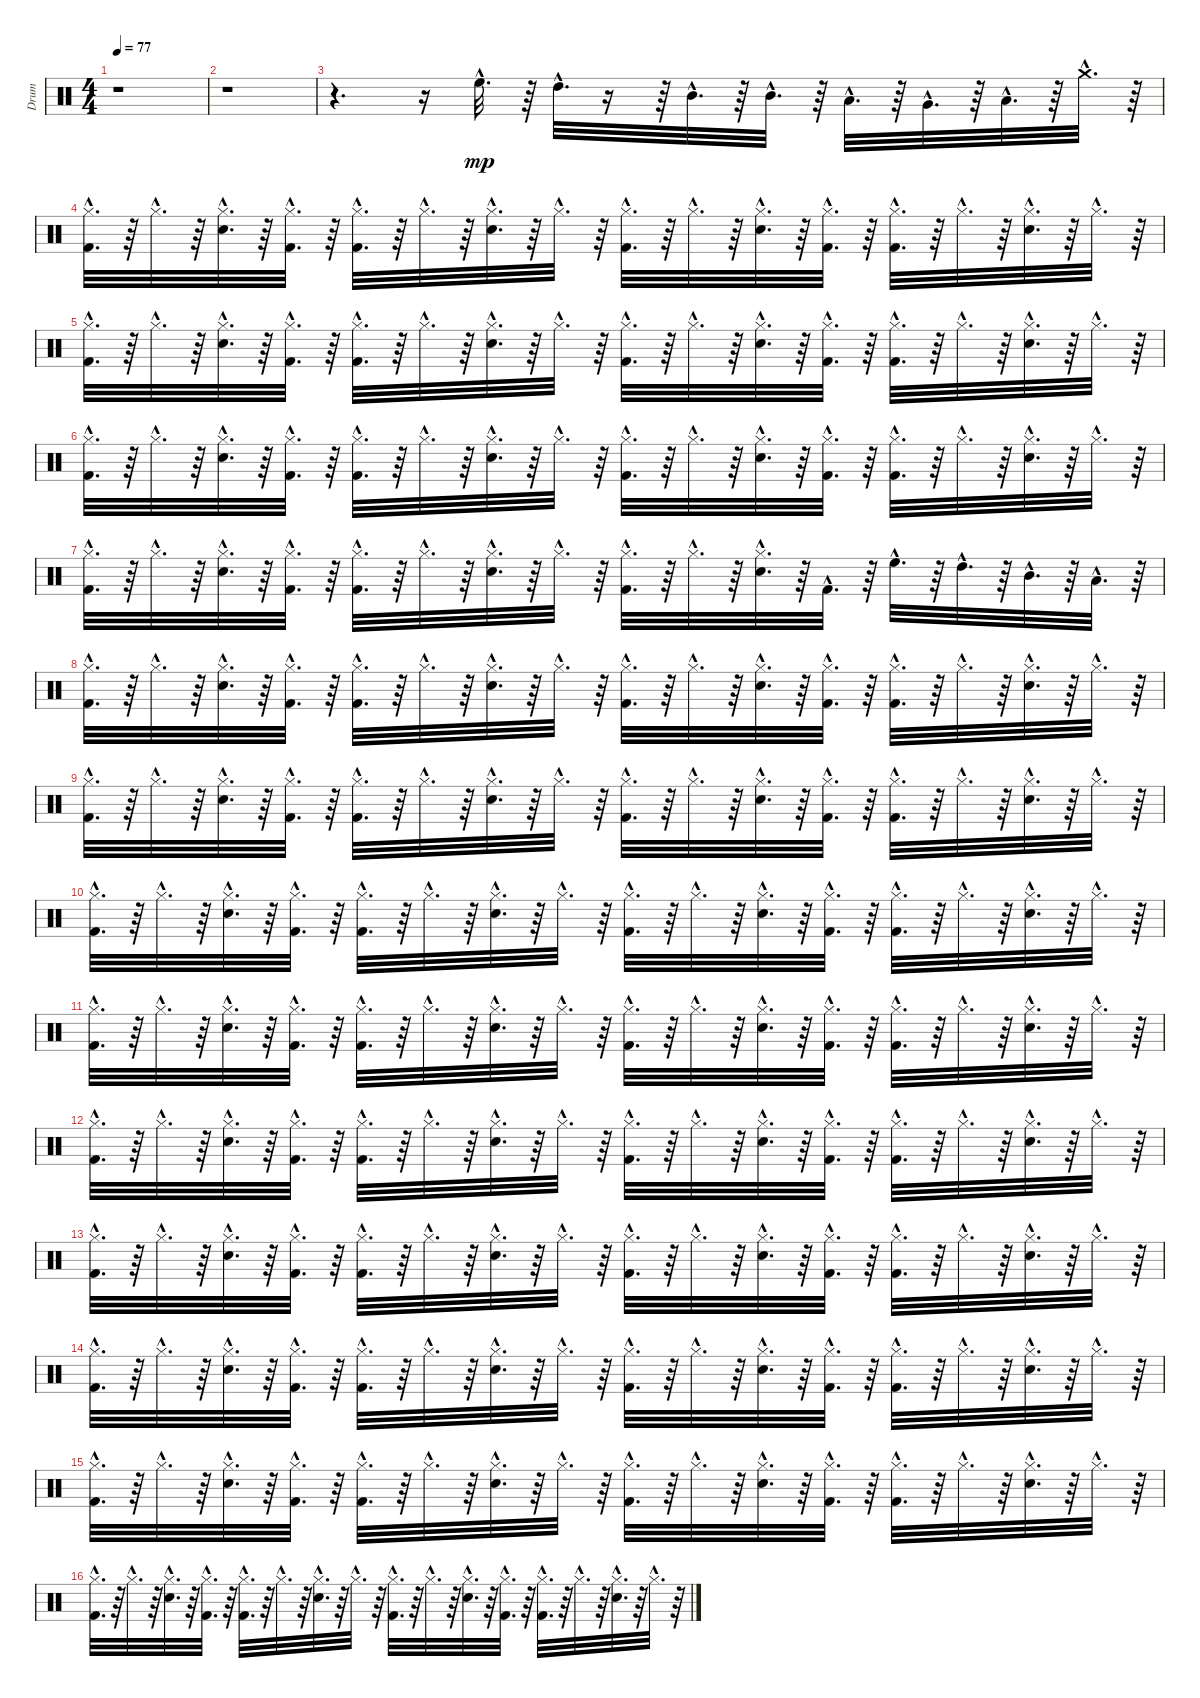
\track ("Drum" "Drum") {instrument percussion}
\staff {score}
\articulation defaults
\ts (4 4)
\tempo 77
\clef neutral
\ks c
r.1{dy mp} |
r.1 |
r.4{d} r.16 "High Floor Tom (hit)"{hac}.32{d} r.64 "High Tom (hit)"{hac}.32{d} r.16 r.64 "Mid Tom (hit)"{hac}.32{d} r.64 "Mid Tom (hit)"{hac}.32{d} r.64 "Low Tom (hit)"{hac}.32{d} r.64 "Very Low Tom (hit)"{hac}.32{d} r.64 "Low Floor Tom (hit)"{hac}.32{d} r.64 "Crash medium (hit)"{hac}.32{d} r.64 |
("Hi-Hat (closed)"{hac} "Kick (hit) 2"{hac}).32{d} r.64 "Hi-Hat (closed)"{hac}.32{d} r.64 ("Snare (hit) 2"{hac} "Hi-Hat (closed)"{hac}).32{d} r.64 ("Hi-Hat (closed)"{hac} "Kick (hit) 2"{hac}).32{d} r.64 ("Kick (hit) 2"{hac} "Hi-Hat (closed)"{hac}).32{d} r.64 "Hi-Hat (closed)"{hac}.32{d} r.64 ("Snare (hit) 2"{hac} "Hi-Hat (closed)"{hac}).32{d} r.64 "Hi-Hat (closed)"{hac}.32{d} r.64 ("Hi-Hat (closed)"{hac} "Kick (hit) 2"{hac}).32{d} r.64 "Hi-Hat (closed)"{hac}.32{d} r.64 ("Snare (hit) 2"{hac} "Hi-Hat (closed)"{hac}).32{d} r.64 ("Kick (hit) 2"{hac} "Hi-Hat (closed)"{hac}).32{d} r.64 ("Kick (hit) 2"{hac} "Hi-Hat (closed)"{hac}).32{d} r.64 "Hi-Hat (closed)"{hac}.32{d} r.64 ("Hi-Hat (closed)"{hac} "Snare (hit) 2"{hac}).32{d} r.64 "Hi-Hat (closed)"{hac}.32{d} r.64 |
("Kick (hit) 2"{hac} "Hi-Hat (closed)"{hac}).32{d} r.64 "Hi-Hat (closed)"{hac}.32{d} r.64 ("Snare (hit) 2"{hac} "Hi-Hat (closed)"{hac}).32{d} r.64 ("Kick (hit) 2"{hac} "Hi-Hat (closed)"{hac}).32{d} r.64 ("Hi-Hat (closed)"{hac} "Kick (hit) 2"{hac}).32{d} r.64 "Hi-Hat (closed)"{hac}.32{d} r.64 ("Hi-Hat (closed)"{hac} "Snare (hit) 2"{hac}).32{d} r.64 "Hi-Hat (closed)"{hac}.32{d} r.64 ("Kick (hit) 2"{hac} "Hi-Hat (closed)"{hac}).32{d} r.64 "Hi-Hat (closed)"{hac}.32{d} r.64 ("Snare (hit) 2"{hac} "Hi-Hat (closed)"{hac}).32{d} r.64 ("Kick (hit) 2"{hac} "Hi-Hat (closed)"{hac}).32{d} r.64 ("Kick (hit) 2"{hac} "Hi-Hat (closed)"{hac}).32{d} r.64 "Hi-Hat (closed)"{hac}.32{d} r.64 ("Snare (hit) 2"{hac} "Hi-Hat (closed)"{hac}).32{d} r.64 "Hi-Hat (closed)"{hac}.32{d} r.64 |
("Kick (hit) 2"{hac} "Hi-Hat (closed)"{hac}).32{d} r.64 "Hi-Hat (closed)"{hac}.32{d} r.64 ("Snare (hit) 2"{hac} "Hi-Hat (closed)"{hac}).32{d} r.64 ("Kick (hit) 2"{hac} "Hi-Hat (closed)"{hac}).32{d} r.64 ("Kick (hit) 2"{hac} "Hi-Hat (closed)"{hac}).32{d} r.64 "Hi-Hat (closed)"{hac}.32{d} r.64 ("Hi-Hat (closed)"{hac} "Snare (hit) 2"{hac}).32{d} r.64 "Hi-Hat (closed)"{hac}.32{d} r.64 ("Hi-Hat (closed)"{hac} "Kick (hit) 2"{hac}).32{d} r.64 "Hi-Hat (closed)"{hac}.32{d} r.64 ("Snare (hit) 2"{hac} "Hi-Hat (closed)"{hac}).32{d} r.64 ("Kick (hit) 2"{hac} "Hi-Hat (closed)"{hac}).32{d} r.64 ("Hi-Hat (closed)"{hac} "Kick (hit) 2"{hac}).32{d} r.64 "Hi-Hat (closed)"{hac}.32{d} r.64 ("Hi-Hat (closed)"{hac} "Snare (hit) 2"{hac}).32{d} r.64 "Hi-Hat (closed)"{hac}.32{d} r.64 |
("Kick (hit) 2"{hac} "Hi-Hat (closed)"{hac}).32{d} r.64 "Hi-Hat (closed)"{hac}.32{d} r.64 ("Snare (hit) 2"{hac} "Hi-Hat (closed)"{hac}).32{d} r.64 ("Kick (hit) 2"{hac} "Hi-Hat (closed)"{hac}).32{d} r.64 ("Kick (hit) 2"{hac} "Hi-Hat (closed)"{hac}).32{d} r.64 "Hi-Hat (closed)"{hac}.32{d} r.64 ("Snare (hit) 2"{hac} "Hi-Hat (closed)"{hac}).32{d} r.64 "Hi-Hat (closed)"{hac}.32{d} r.64 ("Kick (hit) 2"{hac} "Hi-Hat (closed)"{hac}).32{d} r.64 "Hi-Hat (closed)"{hac}.32{d} r.64 ("Snare (hit) 2"{hac} "Hi-Hat (closed)"{hac}).32{d} r.64 "Kick (hit) 2"{hac}.32{d} r.64 "High Floor Tom (hit)"{hac}.32{d} r.64 "High Tom (hit)"{hac}.32{d} r.64 "Mid Tom (hit)"{hac}.32{d} r.64 "Low Tom (hit)"{hac}.32{d} r.64 |
("Hi-Hat (closed)"{hac} "Kick (hit) 2"{hac}).32{d} r.64 "Hi-Hat (closed)"{hac}.32{d} r.64 ("Snare (hit) 2"{hac} "Hi-Hat (closed)"{hac}).32{d} r.64 ("Hi-Hat (closed)"{hac} "Kick (hit) 2"{hac}).32{d} r.64 ("Kick (hit) 2"{hac} "Hi-Hat (closed)"{hac}).32{d} r.64 "Hi-Hat (closed)"{hac}.32{d} r.64 ("Hi-Hat (closed)"{hac} "Snare (hit) 2"{hac}).32{d} r.64 "Hi-Hat (closed)"{hac}.32{d} r.64 ("Kick (hit) 2"{hac} "Hi-Hat (closed)"{hac}).32{d} r.64 "Hi-Hat (closed)"{hac}.32{d} r.64 ("Snare (hit) 2"{hac} "Hi-Hat (closed)"{hac}).32{d} r.64 ("Hi-Hat (closed)"{hac} "Kick (hit) 2"{hac}).32{d} r.64 ("Hi-Hat (closed)"{hac} "Kick (hit) 2"{hac}).32{d} r.64 "Hi-Hat (closed)"{hac}.32{d} r.64 ("Hi-Hat (closed)"{hac} "Snare (hit) 2"{hac}).32{d} r.64 "Hi-Hat (closed)"{hac}.32{d} r.64 |
("Hi-Hat (closed)"{hac} "Kick (hit) 2"{hac}).32{d} r.64 "Hi-Hat (closed)"{hac}.32{d} r.64 ("Hi-Hat (closed)"{hac} "Snare (hit) 2"{hac}).32{d} r.64 ("Kick (hit) 2"{hac} "Hi-Hat (closed)"{hac}).32{d} r.64 ("Kick (hit) 2"{hac} "Hi-Hat (closed)"{hac}).32{d} r.64 "Hi-Hat (closed)"{hac}.32{d} r.64 ("Hi-Hat (closed)"{hac} "Snare (hit) 2"{hac}).32{d} r.64 "Hi-Hat (closed)"{hac}.32{d} r.64 ("Kick (hit) 2"{hac} "Hi-Hat (closed)"{hac}).32{d} r.64 "Hi-Hat (closed)"{hac}.32{d} r.64 ("Snare (hit) 2"{hac} "Hi-Hat (closed)"{hac}).32{d} r.64 ("Kick (hit) 2"{hac} "Hi-Hat (closed)"{hac}).32{d} r.64 ("Hi-Hat (closed)"{hac} "Kick (hit) 2"{hac}).32{d} r.64 "Hi-Hat (closed)"{hac}.32{d} r.64 ("Hi-Hat (closed)"{hac} "Snare (hit) 2"{hac}).32{d} r.64 "Hi-Hat (closed)"{hac}.32{d} r.64 |
("Kick (hit) 2"{hac} "Hi-Hat (closed)"{hac}).32{d} r.64 "Hi-Hat (closed)"{hac}.32{d} r.64 ("Snare (hit) 2"{hac} "Hi-Hat (closed)"{hac}).32{d} r.64 ("Hi-Hat (closed)"{hac} "Kick (hit) 2"{hac}).32{d} r.64 ("Kick (hit) 2"{hac} "Hi-Hat (closed)"{hac}).32{d} r.64 "Hi-Hat (closed)"{hac}.32{d} r.64 ("Snare (hit) 2"{hac} "Hi-Hat (closed)"{hac}).32{d} r.64 "Hi-Hat (closed)"{hac}.32{d} r.64 ("Kick (hit) 2"{hac} "Hi-Hat (closed)"{hac}).32{d} r.64 "Hi-Hat (closed)"{hac}.32{d} r.64 ("Hi-Hat (closed)"{hac} "Snare (hit) 2"{hac}).32{d} r.64 ("Hi-Hat (closed)"{hac} "Kick (hit) 2"{hac}).32{d} r.64 ("Hi-Hat (closed)"{hac} "Kick (hit) 2"{hac}).32{d} r.64 "Hi-Hat (closed)"{hac}.32{d} r.64 ("Snare (hit) 2"{hac} "Hi-Hat (closed)"{hac}).32{d} r.64 "Hi-Hat (closed)"{hac}.32{d} r.64 |
("Kick (hit) 2"{hac} "Hi-Hat (closed)"{hac}).32{d} r.64 "Hi-Hat (closed)"{hac}.32{d} r.64 ("Snare (hit) 2"{hac} "Hi-Hat (closed)"{hac}).32{d} r.64 ("Hi-Hat (closed)"{hac} "Kick (hit) 2"{hac}).32{d} r.64 ("Hi-Hat (closed)"{hac} "Kick (hit) 2"{hac}).32{d} r.64 "Hi-Hat (closed)"{hac}.32{d} r.64 ("Snare (hit) 2"{hac} "Hi-Hat (closed)"{hac}).32{d} r.64 "Hi-Hat (closed)"{hac}.32{d} r.64 ("Kick (hit) 2"{hac} "Hi-Hat (closed)"{hac}).32{d} r.64 "Hi-Hat (closed)"{hac}.32{d} r.64 ("Snare (hit) 2"{hac} "Hi-Hat (closed)"{hac}).32{d} r.64 ("Kick (hit) 2"{hac} "Hi-Hat (closed)"{hac}).32{d} r.64 ("Hi-Hat (closed)"{hac} "Kick (hit) 2"{hac}).32{d} r.64 "Hi-Hat (closed)"{hac}.32{d} r.64 ("Hi-Hat (closed)"{hac} "Snare (hit) 2"{hac}).32{d} r.64 "Hi-Hat (closed)"{hac}.32{d} r.64 |
("Kick (hit) 2"{hac} "Hi-Hat (closed)"{hac}).32{d} r.64 "Hi-Hat (closed)"{hac}.32{d} r.64 ("Snare (hit) 2"{hac} "Hi-Hat (closed)"{hac}).32{d} r.64 ("Kick (hit) 2"{hac} "Hi-Hat (closed)"{hac}).32{d} r.64 ("Kick (hit) 2"{hac} "Hi-Hat (closed)"{hac}).32{d} r.64 "Hi-Hat (closed)"{hac}.32{d} r.64 ("Hi-Hat (closed)"{hac} "Snare (hit) 2"{hac}).32{d} r.64 "Hi-Hat (closed)"{hac}.32{d} r.64 ("Hi-Hat (closed)"{hac} "Kick (hit) 2"{hac}).32{d} r.64 "Hi-Hat (closed)"{hac}.32{d} r.64 ("Hi-Hat (closed)"{hac} "Snare (hit) 2"{hac}).32{d} r.64 ("Kick (hit) 2"{hac} "Hi-Hat (closed)"{hac}).32{d} r.64 ("Kick (hit) 2"{hac} "Hi-Hat (closed)"{hac}).32{d} r.64 "Hi-Hat (closed)"{hac}.32{d} r.64 ("Snare (hit) 2"{hac} "Hi-Hat (closed)"{hac}).32{d} r.64 "Hi-Hat (closed)"{hac}.32{d} r.64 |
("Hi-Hat (closed)"{hac} "Kick (hit) 2"{hac}).32{d} r.64 "Hi-Hat (closed)"{hac}.32{d} r.64 ("Hi-Hat (closed)"{hac} "Snare (hit) 2"{hac}).32{d} r.64 ("Kick (hit) 2"{hac} "Hi-Hat (closed)"{hac}).32{d} r.64 ("Hi-Hat (closed)"{hac} "Kick (hit) 2"{hac}).32{d} r.64 "Hi-Hat (closed)"{hac}.32{d} r.64 ("Snare (hit) 2"{hac} "Hi-Hat (closed)"{hac}).32{d} r.64 "Hi-Hat (closed)"{hac}.32{d} r.64 ("Kick (hit) 2"{hac} "Hi-Hat (closed)"{hac}).32{d} r.64 "Hi-Hat (closed)"{hac}.32{d} r.64 ("Hi-Hat (closed)"{hac} "Snare (hit) 2"{hac}).32{d} r.64 ("Kick (hit) 2"{hac} "Hi-Hat (closed)"{hac}).32{d} r.64 ("Hi-Hat (closed)"{hac} "Kick (hit) 2"{hac}).32{d} r.64 "Hi-Hat (closed)"{hac}.32{d} r.64 ("Hi-Hat (closed)"{hac} "Snare (hit) 2"{hac}).32{d} r.64 "Hi-Hat (closed)"{hac}.32{d} r.64 |
("Hi-Hat (closed)"{hac} "Kick (hit) 2"{hac}).32{d} r.64 "Hi-Hat (closed)"{hac}.32{d} r.64 ("Hi-Hat (closed)"{hac} "Snare (hit) 2"{hac}).32{d} r.64 ("Kick (hit) 2"{hac} "Hi-Hat (closed)"{hac}).32{d} r.64 ("Kick (hit) 2"{hac} "Hi-Hat (closed)"{hac}).32{d} r.64 "Hi-Hat (closed)"{hac}.32{d} r.64 ("Snare (hit) 2"{hac} "Hi-Hat (closed)"{hac}).32{d} r.64 "Hi-Hat (closed)"{hac}.32{d} r.64 ("Hi-Hat (closed)"{hac} "Kick (hit) 2"{hac}).32{d} r.64 "Hi-Hat (closed)"{hac}.32{d} r.64 ("Snare (hit) 2"{hac} "Hi-Hat (closed)"{hac}).32{d} r.64 ("Kick (hit) 2"{hac} "Hi-Hat (closed)"{hac}).32{d} r.64 ("Kick (hit) 2"{hac} "Hi-Hat (closed)"{hac}).32{d} r.64 "Hi-Hat (closed)"{hac}.32{d} r.64 ("Snare (hit) 2"{hac} "Hi-Hat (closed)"{hac}).32{d} r.64 "Hi-Hat (closed)"{hac}.32{d} r.64 |
("Hi-Hat (closed)"{hac} "Kick (hit) 2"{hac}).32{d} r.64 "Hi-Hat (closed)"{hac}.32{d} r.64 ("Hi-Hat (closed)"{hac} "Snare (hit) 2"{hac}).32{d} r.64 ("Hi-Hat (closed)"{hac} "Kick (hit) 2"{hac}).32{d} r.64 ("Hi-Hat (closed)"{hac} "Kick (hit) 2"{hac}).32{d} r.64 "Hi-Hat (closed)"{hac}.32{d} r.64 ("Snare (hit) 2"{hac} "Hi-Hat (closed)"{hac}).32{d} r.64 "Hi-Hat (closed)"{hac}.32{d} r.64 ("Kick (hit) 2"{hac} "Hi-Hat (closed)"{hac}).32{d} r.64 "Hi-Hat (closed)"{hac}.32{d} r.64 ("Hi-Hat (closed)"{hac} "Snare (hit) 2"{hac}).32{d} r.64 ("Kick (hit) 2"{hac} "Hi-Hat (closed)"{hac}).32{d} r.64 ("Hi-Hat (closed)"{hac} "Kick (hit) 2"{hac}).32{d} r.64 "Hi-Hat (closed)"{hac}.32{d} r.64 ("Snare (hit) 2"{hac} "Hi-Hat (closed)"{hac}).32{d} r.64 "Hi-Hat (closed)"{hac}.32{d} r.64 |
("Hi-Hat (closed)"{hac} "Kick (hit) 2"{hac}).32{d} r.64 "Hi-Hat (closed)"{hac}.32{d} r.64 ("Snare (hit) 2"{hac} "Hi-Hat (closed)"{hac}).32{d} r.64 ("Kick (hit) 2"{hac} "Hi-Hat (closed)"{hac}).32{d} r.64 ("Hi-Hat (closed)"{hac} "Kick (hit) 2"{hac}).32{d} r.64 "Hi-Hat (closed)"{hac}.32{d} r.64 ("Hi-Hat (closed)"{hac} "Snare (hit) 2"{hac}).32{d} r.64 "Hi-Hat (closed)"{hac}.32{d} r.64 ("Hi-Hat (closed)"{hac} "Kick (hit) 2"{hac}).32{d} r.64 "Hi-Hat (closed)"{hac}.32{d} r.64 ("Snare (hit) 2"{hac} "Hi-Hat (closed)"{hac}).32{d} r.64 ("Hi-Hat (closed)"{hac} "Kick (hit) 2"{hac}).32{d} r.64 ("Kick (hit) 2"{hac} "Hi-Hat (closed)"{hac}).32{d} r.64 "Hi-Hat (closed)"{hac}.32{d} r.64 ("Hi-Hat (closed)"{hac} "Snare (hit) 2"{hac}).32{d} r.64 "Hi-Hat (closed)"{hac}.32{d} r.64
